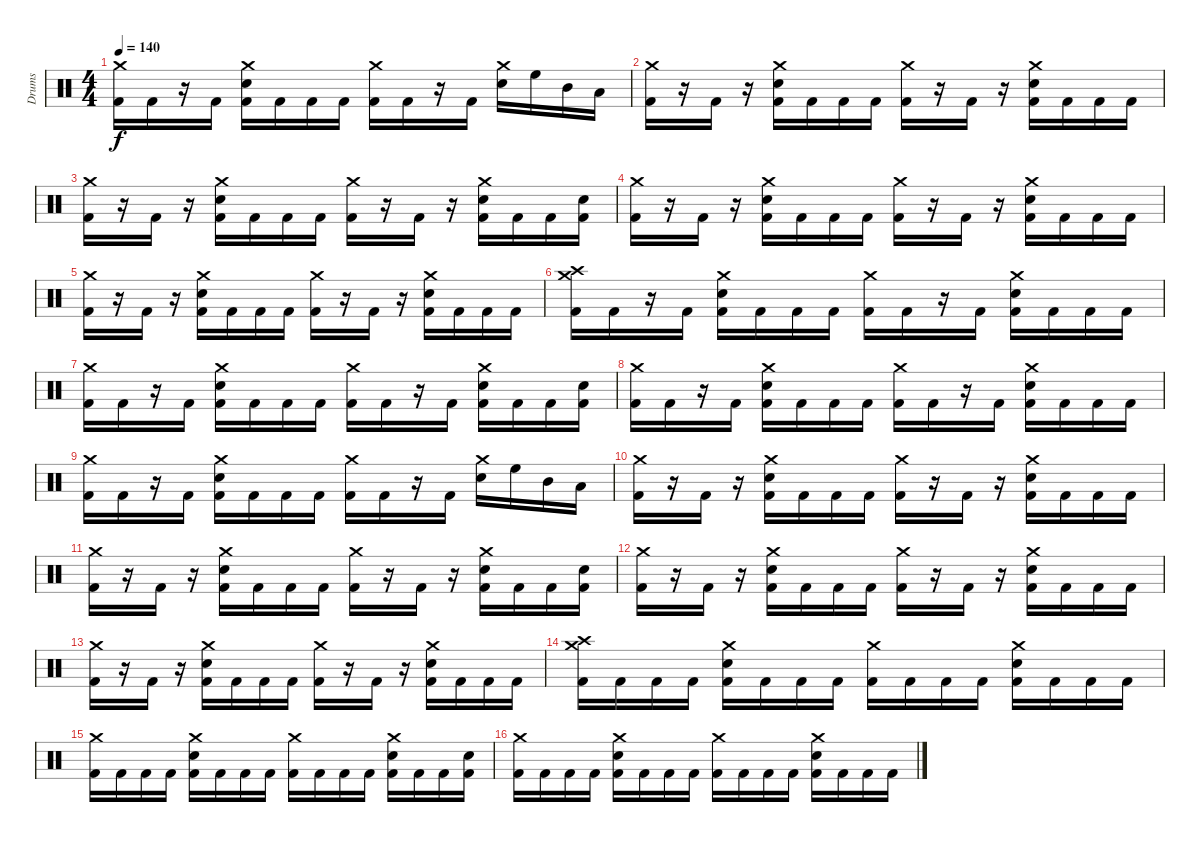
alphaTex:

\track ("Drums" "Drums") {instrument percussion}
\staff {score}
\articulation defaults
\ts (4 4)
\tempo 140
\clef neutral
\ks c
("Crash medium (hit)" "Kick (hit) 2").16{dy f} "Kick (hit) 2".16 r.16 "Kick (hit) 2".16 ("Crash medium (hit)" "Electric Snare (hit)" "Kick (hit) 2").16 "Kick (hit) 2".16 "Kick (hit) 2".16 "Kick (hit) 2".16 ("Crash medium (hit)" "Kick (hit) 2").16 "Kick (hit) 2".16 r.16 "Kick (hit) 2".16 ("Crash medium (hit)" "Electric Snare (hit)").16 "High Floor Tom (hit)".16 "Mid Tom (hit)".16 "Low Tom (hit)".16 |
("Crash medium (hit)" "Kick (hit) 2").16 r.16 "Kick (hit) 2".16 r.16 ("Crash medium (hit)" "Electric Snare (hit)" "Kick (hit) 2").16 "Kick (hit) 2".16 "Kick (hit) 2".16 "Kick (hit) 2".16 ("Crash medium (hit)" "Kick (hit) 2").16 r.16 "Kick (hit) 2".16 r.16 ("Crash medium (hit)" "Electric Snare (hit)" "Kick (hit) 2").16 "Kick (hit) 2".16 "Kick (hit) 2".16 "Kick (hit) 2".16 |
("Crash medium (hit)" "Kick (hit) 2").16 r.16 "Kick (hit) 2".16 r.16 ("Crash medium (hit)" "Electric Snare (hit)" "Kick (hit) 2").16 "Kick (hit) 2".16 "Kick (hit) 2".16 "Kick (hit) 2".16 ("Crash medium (hit)" "Kick (hit) 2").16 r.16 "Kick (hit) 2".16 r.16 ("Crash medium (hit)" "Electric Snare (hit)" "Kick (hit) 2").16 "Kick (hit) 2".16 "Kick (hit) 2".16 ("Electric Snare (hit)" "Kick (hit) 2").16 |
("Crash medium (hit)" "Kick (hit) 2").16 r.16 "Kick (hit) 2".16 r.16 ("Crash medium (hit)" "Electric Snare (hit)" "Kick (hit) 2").16 "Kick (hit) 2".16 "Kick (hit) 2".16 "Kick (hit) 2".16 ("Crash medium (hit)" "Kick (hit) 2").16 r.16 "Kick (hit) 2".16 r.16 ("Crash medium (hit)" "Electric Snare (hit)" "Kick (hit) 2").16 "Kick (hit) 2".16 "Kick (hit) 2".16 "Kick (hit) 2".16 |
("Crash medium (hit)" "Kick (hit) 2").16 r.16 "Kick (hit) 2".16 r.16 ("Crash medium (hit)" "Electric Snare (hit)" "Kick (hit) 2").16 "Kick (hit) 2".16 "Kick (hit) 2".16 "Kick (hit) 2".16 ("Crash medium (hit)" "Kick (hit) 2").16 r.16 "Kick (hit) 2".16 r.16 ("Crash medium (hit)" "Electric Snare (hit)" "Kick (hit) 2").16 "Kick (hit) 2".16 "Kick (hit) 2".16 "Kick (hit) 2".16 |
("Crash medium (hit)" "Crash high (hit)" "Kick (hit) 2").16 "Kick (hit) 2".16 r.16 "Kick (hit) 2".16 ("Crash medium (hit)" "Electric Snare (hit)" "Kick (hit) 2").16 "Kick (hit) 2".16 "Kick (hit) 2".16 "Kick (hit) 2".16 ("Crash medium (hit)" "Kick (hit) 2").16 "Kick (hit) 2".16 r.16 "Kick (hit) 2".16 ("Crash medium (hit)" "Electric Snare (hit)" "Kick (hit) 2").16 "Kick (hit) 2".16 "Kick (hit) 2".16 "Kick (hit) 2".16 |
("Crash medium (hit)" "Kick (hit) 2").16 "Kick (hit) 2".16 r.16 "Kick (hit) 2".16 ("Crash medium (hit)" "Electric Snare (hit)" "Kick (hit) 2").16 "Kick (hit) 2".16 "Kick (hit) 2".16 "Kick (hit) 2".16 ("Crash medium (hit)" "Kick (hit) 2").16 "Kick (hit) 2".16 r.16 "Kick (hit) 2".16 ("Crash medium (hit)" "Electric Snare (hit)" "Kick (hit) 2").16 "Kick (hit) 2".16 "Kick (hit) 2".16 ("Electric Snare (hit)" "Kick (hit) 2").16 |
("Crash medium (hit)" "Kick (hit) 2").16 "Kick (hit) 2".16 r.16 "Kick (hit) 2".16 ("Crash medium (hit)" "Electric Snare (hit)" "Kick (hit) 2").16 "Kick (hit) 2".16 "Kick (hit) 2".16 "Kick (hit) 2".16 ("Crash medium (hit)" "Kick (hit) 2").16 "Kick (hit) 2".16 r.16 "Kick (hit) 2".16 ("Crash medium (hit)" "Electric Snare (hit)" "Kick (hit) 2").16 "Kick (hit) 2".16 "Kick (hit) 2".16 "Kick (hit) 2".16 |
("Crash medium (hit)" "Kick (hit) 2").16 "Kick (hit) 2".16 r.16 "Kick (hit) 2".16 ("Crash medium (hit)" "Electric Snare (hit)" "Kick (hit) 2").16 "Kick (hit) 2".16 "Kick (hit) 2".16 "Kick (hit) 2".16 ("Crash medium (hit)" "Kick (hit) 2").16 "Kick (hit) 2".16 r.16 "Kick (hit) 2".16 ("Crash medium (hit)" "Electric Snare (hit)").16 "High Floor Tom (hit)".16 "Mid Tom (hit)".16 "Low Tom (hit)".16 |
("Crash medium (hit)" "Kick (hit) 2").16 r.16 "Kick (hit) 2".16 r.16 ("Crash medium (hit)" "Electric Snare (hit)" "Kick (hit) 2").16 "Kick (hit) 2".16 "Kick (hit) 2".16 "Kick (hit) 2".16 ("Crash medium (hit)" "Kick (hit) 2").16 r.16 "Kick (hit) 2".16 r.16 ("Crash medium (hit)" "Electric Snare (hit)" "Kick (hit) 2").16 "Kick (hit) 2".16 "Kick (hit) 2".16 "Kick (hit) 2".16 |
("Crash medium (hit)" "Kick (hit) 2").16 r.16 "Kick (hit) 2".16 r.16 ("Crash medium (hit)" "Electric Snare (hit)" "Kick (hit) 2").16 "Kick (hit) 2".16 "Kick (hit) 2".16 "Kick (hit) 2".16 ("Crash medium (hit)" "Kick (hit) 2").16 r.16 "Kick (hit) 2".16 r.16 ("Crash medium (hit)" "Electric Snare (hit)" "Kick (hit) 2").16 "Kick (hit) 2".16 "Kick (hit) 2".16 ("Electric Snare (hit)" "Kick (hit) 2").16 |
("Crash medium (hit)" "Kick (hit) 2").16 r.16 "Kick (hit) 2".16 r.16 ("Crash medium (hit)" "Electric Snare (hit)" "Kick (hit) 2").16 "Kick (hit) 2".16 "Kick (hit) 2".16 "Kick (hit) 2".16 ("Crash medium (hit)" "Kick (hit) 2").16 r.16 "Kick (hit) 2".16 r.16 ("Crash medium (hit)" "Electric Snare (hit)" "Kick (hit) 2").16 "Kick (hit) 2".16 "Kick (hit) 2".16 "Kick (hit) 2".16 |
("Crash medium (hit)" "Kick (hit) 2").16 r.16 "Kick (hit) 2".16 r.16 ("Crash medium (hit)" "Electric Snare (hit)" "Kick (hit) 2").16 "Kick (hit) 2".16 "Kick (hit) 2".16 "Kick (hit) 2".16 ("Crash medium (hit)" "Kick (hit) 2").16 r.16 "Kick (hit) 2".16 r.16 ("Crash medium (hit)" "Electric Snare (hit)" "Kick (hit) 2").16 "Kick (hit) 2".16 "Kick (hit) 2".16 "Kick (hit) 2".16 |
("Crash medium (hit)" "Crash high (hit)" "Kick (hit) 2").16 "Kick (hit) 2".16 "Kick (hit) 2".16 "Kick (hit) 2".16 ("Crash medium (hit)" "Electric Snare (hit)" "Kick (hit) 2").16 "Kick (hit) 2".16 "Kick (hit) 2".16 "Kick (hit) 2".16 ("Crash medium (hit)" "Kick (hit) 2").16 "Kick (hit) 2".16 "Kick (hit) 2".16 "Kick (hit) 2".16 ("Crash medium (hit)" "Electric Snare (hit)" "Kick (hit) 2").16 "Kick (hit) 2".16 "Kick (hit) 2".16 "Kick (hit) 2".16 |
("Crash medium (hit)" "Kick (hit) 2").16 "Kick (hit) 2".16 "Kick (hit) 2".16 "Kick (hit) 2".16 ("Crash medium (hit)" "Electric Snare (hit)" "Kick (hit) 2").16 "Kick (hit) 2".16 "Kick (hit) 2".16 "Kick (hit) 2".16 ("Crash medium (hit)" "Kick (hit) 2").16 "Kick (hit) 2".16 "Kick (hit) 2".16 "Kick (hit) 2".16 ("Crash medium (hit)" "Electric Snare (hit)" "Kick (hit) 2").16 "Kick (hit) 2".16 "Kick (hit) 2".16 ("Electric Snare (hit)" "Kick (hit) 2").16 |
("Crash medium (hit)" "Kick (hit) 2").16 "Kick (hit) 2".16 "Kick (hit) 2".16 "Kick (hit) 2".16 ("Crash medium (hit)" "Electric Snare (hit)" "Kick (hit) 2").16 "Kick (hit) 2".16 "Kick (hit) 2".16 "Kick (hit) 2".16 ("Crash medium (hit)" "Kick (hit) 2").16 "Kick (hit) 2".16 "Kick (hit) 2".16 "Kick (hit) 2".16 ("Crash medium (hit)" "Electric Snare (hit)" "Kick (hit) 2").16 "Kick (hit) 2".16 "Kick (hit) 2".16 "Kick (hit) 2".16
